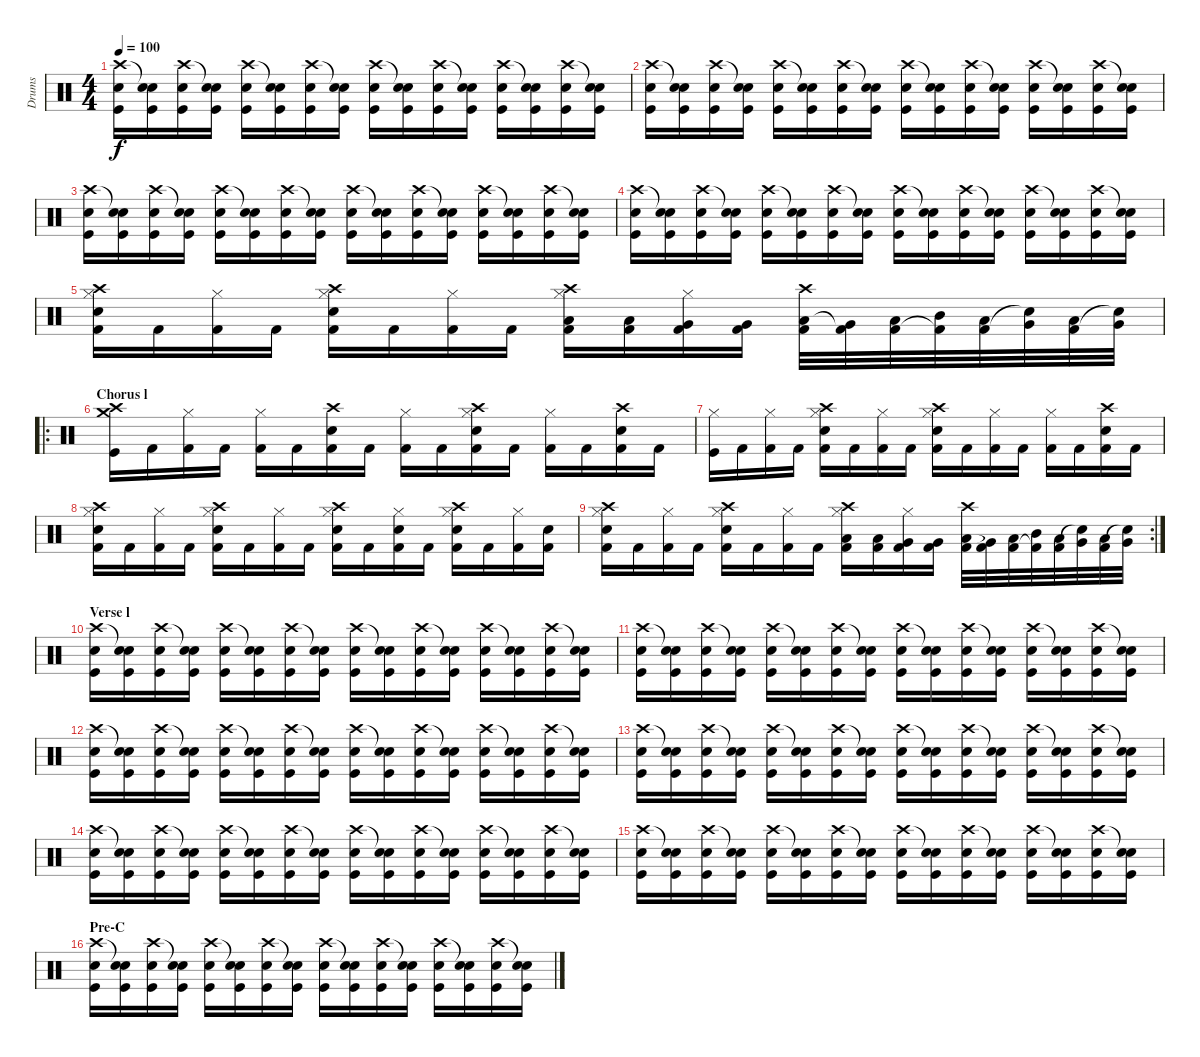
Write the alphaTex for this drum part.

\track ("Drums" "Drums") {instrument percussion}
\staff {score}
\articulation defaults
\ts (4 4)
\tempo 100
\clef neutral
\ks c
("Crash high (hit)" "Electric Snare (hit)" "Kick (hit)").16{dy f} ("Snare (hit)"{t} "Electric Snare (hit)" "Kick (hit)").16 ("Crash high (hit)" "Electric Snare (hit)" "Kick (hit)").16 ("Snare (hit)"{t} "Electric Snare (hit)" "Kick (hit)").16 ("Crash high (hit)" "Electric Snare (hit)" "Kick (hit)").16 ("Snare (hit)"{t} "Electric Snare (hit)" "Kick (hit)").16 ("Crash high (hit)" "Electric Snare (hit)" "Kick (hit)").16 ("Snare (hit)"{t} "Electric Snare (hit)" "Kick (hit)").16 ("Crash high (hit)" "Electric Snare (hit)" "Kick (hit)").16 ("Snare (hit)"{t} "Electric Snare (hit)" "Kick (hit)").16 ("Crash high (hit)" "Electric Snare (hit)" "Kick (hit)").16 ("Snare (hit)"{t} "Electric Snare (hit)" "Kick (hit)").16 ("Crash high (hit)" "Electric Snare (hit)" "Kick (hit)").16 ("Snare (hit)"{t} "Electric Snare (hit)" "Kick (hit)").16 ("Crash high (hit)" "Electric Snare (hit)" "Kick (hit)").16 ("Snare (hit)"{t} "Electric Snare (hit)" "Kick (hit)").16 |
("Crash high (hit)" "Electric Snare (hit)" "Kick (hit)").16 ("Snare (hit)"{t} "Electric Snare (hit)" "Kick (hit)").16 ("Crash high (hit)" "Electric Snare (hit)" "Kick (hit)").16 ("Snare (hit)"{t} "Electric Snare (hit)" "Kick (hit)").16 ("Crash high (hit)" "Electric Snare (hit)" "Kick (hit)").16 ("Snare (hit)"{t} "Electric Snare (hit)" "Kick (hit)").16 ("Crash high (hit)" "Electric Snare (hit)" "Kick (hit)").16 ("Snare (hit)"{t} "Electric Snare (hit)" "Kick (hit)").16 ("Crash high (hit)" "Electric Snare (hit)" "Kick (hit)").16 ("Snare (hit)"{t} "Electric Snare (hit)" "Kick (hit)").16 ("Crash high (hit)" "Electric Snare (hit)" "Kick (hit)").16 ("Snare (hit)"{t} "Electric Snare (hit)" "Kick (hit)").16 ("Crash high (hit)" "Electric Snare (hit)" "Kick (hit)").16 ("Snare (hit)"{t} "Electric Snare (hit)" "Kick (hit)").16 ("Crash high (hit)" "Electric Snare (hit)" "Kick (hit)").16 ("Snare (hit)"{t} "Electric Snare (hit)" "Kick (hit)").16 |
("Crash high (hit)" "Electric Snare (hit)" "Kick (hit)").16 ("Snare (hit)"{t} "Electric Snare (hit)" "Kick (hit)").16 ("Crash high (hit)" "Electric Snare (hit)" "Kick (hit)").16 ("Snare (hit)"{t} "Electric Snare (hit)" "Kick (hit)").16 ("Crash high (hit)" "Electric Snare (hit)" "Kick (hit)").16 ("Snare (hit)"{t} "Electric Snare (hit)" "Kick (hit)").16 ("Crash high (hit)" "Electric Snare (hit)" "Kick (hit)").16 ("Snare (hit)"{t} "Electric Snare (hit)" "Kick (hit)").16 ("Crash high (hit)" "Electric Snare (hit)" "Kick (hit)").16 ("Snare (hit)"{t} "Electric Snare (hit)" "Kick (hit)").16 ("Crash high (hit)" "Electric Snare (hit)" "Kick (hit)").16 ("Snare (hit)"{t} "Electric Snare (hit)" "Kick (hit)").16 ("Crash high (hit)" "Electric Snare (hit)" "Kick (hit)").16 ("Snare (hit)"{t} "Electric Snare (hit)" "Kick (hit)").16 ("Crash high (hit)" "Electric Snare (hit)" "Kick (hit)").16 ("Snare (hit)"{t} "Electric Snare (hit)" "Kick (hit)").16 |
("Crash high (hit)" "Electric Snare (hit)" "Kick (hit)").16 ("Snare (hit)"{t} "Electric Snare (hit)" "Kick (hit)").16 ("Crash high (hit)" "Electric Snare (hit)" "Kick (hit)").16 ("Snare (hit)"{t} "Electric Snare (hit)" "Kick (hit)").16 ("Crash high (hit)" "Electric Snare (hit)" "Kick (hit)").16 ("Snare (hit)"{t} "Electric Snare (hit)" "Kick (hit)").16 ("Crash high (hit)" "Electric Snare (hit)" "Kick (hit)").16 ("Snare (hit)"{t} "Electric Snare (hit)" "Kick (hit)").16 ("Crash high (hit)" "Electric Snare (hit)" "Kick (hit)").16 ("Snare (hit)"{t} "Electric Snare (hit)" "Kick (hit)").16 ("Crash high (hit)" "Electric Snare (hit)" "Kick (hit)").16 ("Snare (hit)"{t} "Electric Snare (hit)" "Kick (hit)").16 ("Crash high (hit)" "Electric Snare (hit)" "Kick (hit)").16 ("Snare (hit)"{t} "Electric Snare (hit)" "Kick (hit)").16 ("Crash high (hit)" "Electric Snare (hit)" "Kick (hit)").16 ("Snare (hit)"{t} "Electric Snare (hit)" "Kick (hit)").16 |
("Hi-Hat (closed)" "Crash high (hit)" "Electric Snare (hit)" "Kick (hit) 2").16 "Kick (hit) 2".16 ("Hi-Hat (closed)" "Kick (hit) 2").16 "Kick (hit) 2".16 ("Hi-Hat (closed)" "Crash high (hit)" "Electric Snare (hit)" "Kick (hit) 2").16 "Kick (hit) 2".16 ("Hi-Hat (closed)" "Kick (hit) 2").16 "Kick (hit) 2".16 ("Hi-Hat (closed)" "Crash high (hit)" "Low Floor Tom (hit)" "Kick (hit) 2").16 ("Low Floor Tom (hit)" "Kick (hit) 2").16 ("Hi-Hat (closed)" "Very Low Tom (hit)" "Kick (hit) 2").16 ("Very Low Tom (hit)" "Kick (hit) 2").16 ("Crash high (hit)" "Low Floor Tom (hit)" "Kick (hit) 2").32 ("Very Low Tom (hit)" "Kick (hit) 2"{t}).32 ("Low Tom (hit)" "Kick (hit) 2").32 ("Mid Tom (hit)" "Kick (hit) 2"{t}).32 ("Low Tom (hit)" "Kick (hit) 2").32 ("Very Low Tom (hit)" "Snare (hit)"{t}).32 ("Low Floor Tom (hit)" "Kick (hit) 2").32 ("Very Low Tom (hit)" "Snare (hit)"{t}).32 |
\ro
\section ("" "Chorus l")
("Crash medium (hit)" "Crash high (hit)" "Kick (hit)").16 "Kick (hit) 2".16 ("Hi-Hat (closed)" "Kick (hit) 2").16 "Kick (hit) 2".16 ("Hi-Hat (closed)" "Kick (hit) 2").16 "Kick (hit) 2".16 ("Crash high (hit)" "Electric Snare (hit)" "Kick (hit) 2").16 "Kick (hit) 2".16 ("Hi-Hat (closed)" "Kick (hit) 2").16 "Kick (hit) 2".16 ("Hi-Hat (closed)" "Crash high (hit)" "Electric Snare (hit)" "Kick (hit) 2").16 "Kick (hit) 2".16 ("Hi-Hat (closed)" "Kick (hit) 2").16 "Kick (hit) 2".16 ("Crash high (hit)" "Electric Snare (hit)" "Kick (hit) 2").16 "Kick (hit) 2".16 |
("Hi-Hat (closed)" "Kick (hit)").16 "Kick (hit) 2".16 ("Hi-Hat (closed)" "Kick (hit) 2").16 "Kick (hit) 2".16 ("Hi-Hat (closed)" "Crash high (hit)" "Electric Snare (hit)" "Kick (hit) 2").16 "Kick (hit) 2".16 ("Hi-Hat (closed)" "Kick (hit) 2").16 "Kick (hit) 2".16 ("Hi-Hat (closed)" "Crash high (hit)" "Electric Snare (hit)" "Kick (hit) 2").16 "Kick (hit) 2".16 ("Hi-Hat (closed)" "Kick (hit) 2").16 "Kick (hit) 2".16 ("Hi-Hat (closed)" "Kick (hit) 2").16 "Kick (hit) 2".16 ("Crash high (hit)" "Electric Snare (hit)" "Kick (hit) 2").16 "Kick (hit) 2".16 |
("Hi-Hat (closed)" "Crash high (hit)" "Electric Snare (hit)" "Kick (hit) 2").16 "Kick (hit) 2".16 ("Hi-Hat (closed)" "Kick (hit) 2").16 "Kick (hit) 2".16 ("Hi-Hat (closed)" "Crash high (hit)" "Electric Snare (hit)" "Kick (hit) 2").16 "Kick (hit) 2".16 ("Hi-Hat (closed)" "Kick (hit) 2").16 "Kick (hit) 2".16 ("Hi-Hat (closed)" "Crash high (hit)" "Electric Snare (hit)" "Kick (hit) 2").16 "Kick (hit) 2".16 ("Hi-Hat (closed)" "Electric Snare (hit)" "Kick (hit) 2").16 "Kick (hit) 2".16 ("Hi-Hat (closed)" "Crash high (hit)" "Electric Snare (hit)" "Kick (hit) 2").16 "Kick (hit) 2".16 ("Hi-Hat (closed)" "Kick (hit) 2").16 ("Electric Snare (hit)" "Kick (hit) 2").16 |
\rc 2
("Hi-Hat (closed)" "Crash high (hit)" "Electric Snare (hit)" "Kick (hit) 2").16 "Kick (hit) 2".16 ("Hi-Hat (closed)" "Kick (hit) 2").16 "Kick (hit) 2".16 ("Hi-Hat (closed)" "Crash high (hit)" "Electric Snare (hit)" "Kick (hit) 2").16 "Kick (hit) 2".16 ("Hi-Hat (closed)" "Kick (hit) 2").16 "Kick (hit) 2".16 ("Hi-Hat (closed)" "Crash high (hit)" "Low Floor Tom (hit)" "Kick (hit) 2").16 ("Low Floor Tom (hit)" "Kick (hit) 2").16 ("Hi-Hat (closed)" "Very Low Tom (hit)" "Kick (hit) 2").16 ("Very Low Tom (hit)" "Kick (hit) 2").16 ("Crash high (hit)" "Low Floor Tom (hit)" "Kick (hit) 2").32 ("Very Low Tom (hit)" "Kick (hit) 2"{t}).32 ("Low Tom (hit)" "Kick (hit) 2").32 ("Mid Tom (hit)" "Kick (hit) 2"{t}).32 ("Low Tom (hit)" "Kick (hit) 2").32 ("Very Low Tom (hit)" "Snare (hit)"{t}).32 ("Low Floor Tom (hit)" "Kick (hit) 2").32 ("Very Low Tom (hit)" "Snare (hit)"{t}).32 |
\section ("" "Verse l")
("Crash high (hit)" "Electric Snare (hit)" "Kick (hit)").16 ("Snare (hit)"{t} "Electric Snare (hit)" "Kick (hit)").16 ("Crash high (hit)" "Electric Snare (hit)" "Kick (hit)").16 ("Snare (hit)"{t} "Electric Snare (hit)" "Kick (hit)").16 ("Crash high (hit)" "Electric Snare (hit)" "Kick (hit)").16 ("Snare (hit)"{t} "Electric Snare (hit)" "Kick (hit)").16 ("Crash high (hit)" "Electric Snare (hit)" "Kick (hit)").16 ("Snare (hit)"{t} "Electric Snare (hit)" "Kick (hit)").16 ("Crash high (hit)" "Electric Snare (hit)" "Kick (hit)").16 ("Snare (hit)"{t} "Electric Snare (hit)" "Kick (hit)").16 ("Crash high (hit)" "Electric Snare (hit)" "Kick (hit)").16 ("Snare (hit)"{t} "Electric Snare (hit)" "Kick (hit)").16 ("Crash high (hit)" "Electric Snare (hit)" "Kick (hit)").16 ("Snare (hit)"{t} "Electric Snare (hit)" "Kick (hit)").16 ("Crash high (hit)" "Electric Snare (hit)" "Kick (hit)").16 ("Snare (hit)"{t} "Electric Snare (hit)" "Kick (hit)").16 |
("Crash high (hit)" "Electric Snare (hit)" "Kick (hit)").16 ("Snare (hit)"{t} "Electric Snare (hit)" "Kick (hit)").16 ("Crash high (hit)" "Electric Snare (hit)" "Kick (hit)").16 ("Snare (hit)"{t} "Electric Snare (hit)" "Kick (hit)").16 ("Crash high (hit)" "Electric Snare (hit)" "Kick (hit)").16 ("Snare (hit)"{t} "Electric Snare (hit)" "Kick (hit)").16 ("Crash high (hit)" "Electric Snare (hit)" "Kick (hit)").16 ("Snare (hit)"{t} "Electric Snare (hit)" "Kick (hit)").16 ("Crash high (hit)" "Electric Snare (hit)" "Kick (hit)").16 ("Snare (hit)"{t} "Electric Snare (hit)" "Kick (hit)").16 ("Crash high (hit)" "Electric Snare (hit)" "Kick (hit)").16 ("Snare (hit)"{t} "Electric Snare (hit)" "Kick (hit)").16 ("Crash high (hit)" "Electric Snare (hit)" "Kick (hit)").16 ("Snare (hit)"{t} "Electric Snare (hit)" "Kick (hit)").16 ("Crash high (hit)" "Electric Snare (hit)" "Kick (hit)").16 ("Snare (hit)"{t} "Electric Snare (hit)" "Kick (hit)").16 |
("Crash high (hit)" "Electric Snare (hit)" "Kick (hit)").16 ("Snare (hit)"{t} "Electric Snare (hit)" "Kick (hit)").16 ("Crash high (hit)" "Electric Snare (hit)" "Kick (hit)").16 ("Snare (hit)"{t} "Electric Snare (hit)" "Kick (hit)").16 ("Crash high (hit)" "Electric Snare (hit)" "Kick (hit)").16 ("Snare (hit)"{t} "Electric Snare (hit)" "Kick (hit)").16 ("Crash high (hit)" "Electric Snare (hit)" "Kick (hit)").16 ("Snare (hit)"{t} "Electric Snare (hit)" "Kick (hit)").16 ("Crash high (hit)" "Electric Snare (hit)" "Kick (hit)").16 ("Snare (hit)"{t} "Electric Snare (hit)" "Kick (hit)").16 ("Crash high (hit)" "Electric Snare (hit)" "Kick (hit)").16 ("Snare (hit)"{t} "Electric Snare (hit)" "Kick (hit)").16 ("Crash high (hit)" "Electric Snare (hit)" "Kick (hit)").16 ("Snare (hit)"{t} "Electric Snare (hit)" "Kick (hit)").16 ("Crash high (hit)" "Electric Snare (hit)" "Kick (hit)").16 ("Snare (hit)"{t} "Electric Snare (hit)" "Kick (hit)").16 |
("Crash high (hit)" "Electric Snare (hit)" "Kick (hit)").16 ("Snare (hit)"{t} "Electric Snare (hit)" "Kick (hit)").16 ("Crash high (hit)" "Electric Snare (hit)" "Kick (hit)").16 ("Snare (hit)"{t} "Electric Snare (hit)" "Kick (hit)").16 ("Crash high (hit)" "Electric Snare (hit)" "Kick (hit)").16 ("Snare (hit)"{t} "Electric Snare (hit)" "Kick (hit)").16 ("Crash high (hit)" "Electric Snare (hit)" "Kick (hit)").16 ("Snare (hit)"{t} "Electric Snare (hit)" "Kick (hit)").16 ("Crash high (hit)" "Electric Snare (hit)" "Kick (hit)").16 ("Snare (hit)"{t} "Electric Snare (hit)" "Kick (hit)").16 ("Crash high (hit)" "Electric Snare (hit)" "Kick (hit)").16 ("Snare (hit)"{t} "Electric Snare (hit)" "Kick (hit)").16 ("Crash high (hit)" "Electric Snare (hit)" "Kick (hit)").16 ("Snare (hit)"{t} "Electric Snare (hit)" "Kick (hit)").16 ("Crash high (hit)" "Electric Snare (hit)" "Kick (hit)").16 ("Snare (hit)"{t} "Electric Snare (hit)" "Kick (hit)").16 |
("Crash high (hit)" "Electric Snare (hit)" "Kick (hit)").16 ("Snare (hit)"{t} "Electric Snare (hit)" "Kick (hit)").16 ("Crash high (hit)" "Electric Snare (hit)" "Kick (hit)").16 ("Snare (hit)"{t} "Electric Snare (hit)" "Kick (hit)").16 ("Crash high (hit)" "Electric Snare (hit)" "Kick (hit)").16 ("Snare (hit)"{t} "Electric Snare (hit)" "Kick (hit)").16 ("Crash high (hit)" "Electric Snare (hit)" "Kick (hit)").16 ("Snare (hit)"{t} "Electric Snare (hit)" "Kick (hit)").16 ("Crash high (hit)" "Electric Snare (hit)" "Kick (hit)").16 ("Snare (hit)"{t} "Electric Snare (hit)" "Kick (hit)").16 ("Crash high (hit)" "Electric Snare (hit)" "Kick (hit)").16 ("Snare (hit)"{t} "Electric Snare (hit)" "Kick (hit)").16 ("Crash high (hit)" "Electric Snare (hit)" "Kick (hit)").16 ("Snare (hit)"{t} "Electric Snare (hit)" "Kick (hit)").16 ("Crash high (hit)" "Electric Snare (hit)" "Kick (hit)").16 ("Snare (hit)"{t} "Electric Snare (hit)" "Kick (hit)").16 |
("Crash high (hit)" "Electric Snare (hit)" "Kick (hit)").16 ("Snare (hit)"{t} "Electric Snare (hit)" "Kick (hit)").16 ("Crash high (hit)" "Electric Snare (hit)" "Kick (hit)").16 ("Snare (hit)"{t} "Electric Snare (hit)" "Kick (hit)").16 ("Crash high (hit)" "Electric Snare (hit)" "Kick (hit)").16 ("Snare (hit)"{t} "Electric Snare (hit)" "Kick (hit)").16 ("Crash high (hit)" "Electric Snare (hit)" "Kick (hit)").16 ("Snare (hit)"{t} "Electric Snare (hit)" "Kick (hit)").16 ("Crash high (hit)" "Electric Snare (hit)" "Kick (hit)").16 ("Snare (hit)"{t} "Electric Snare (hit)" "Kick (hit)").16 ("Crash high (hit)" "Electric Snare (hit)" "Kick (hit)").16 ("Snare (hit)"{t} "Electric Snare (hit)" "Kick (hit)").16 ("Crash high (hit)" "Electric Snare (hit)" "Kick (hit)").16 ("Snare (hit)"{t} "Electric Snare (hit)" "Kick (hit)").16 ("Crash high (hit)" "Electric Snare (hit)" "Kick (hit)").16 ("Snare (hit)"{t} "Electric Snare (hit)" "Kick (hit)").16 |
\section ("" "Pre-C")
("Crash high (hit)" "Electric Snare (hit)" "Kick (hit)").16 ("Snare (hit)"{t} "Electric Snare (hit)" "Kick (hit)").16 ("Crash high (hit)" "Electric Snare (hit)" "Kick (hit)").16 ("Snare (hit)"{t} "Electric Snare (hit)" "Kick (hit)").16 ("Crash high (hit)" "Electric Snare (hit)" "Kick (hit)").16 ("Snare (hit)"{t} "Electric Snare (hit)" "Kick (hit)").16 ("Crash high (hit)" "Electric Snare (hit)" "Kick (hit)").16 ("Snare (hit)"{t} "Electric Snare (hit)" "Kick (hit)").16 ("Crash high (hit)" "Electric Snare (hit)" "Kick (hit)").16 ("Snare (hit)"{t} "Electric Snare (hit)" "Kick (hit)").16 ("Crash high (hit)" "Electric Snare (hit)" "Kick (hit)").16 ("Snare (hit)"{t} "Electric Snare (hit)" "Kick (hit)").16 ("Crash high (hit)" "Electric Snare (hit)" "Kick (hit)").16 ("Snare (hit)"{t} "Electric Snare (hit)" "Kick (hit)").16 ("Crash high (hit)" "Electric Snare (hit)" "Kick (hit)").16 ("Snare (hit)"{t} "Electric Snare (hit)" "Kick (hit)").16
